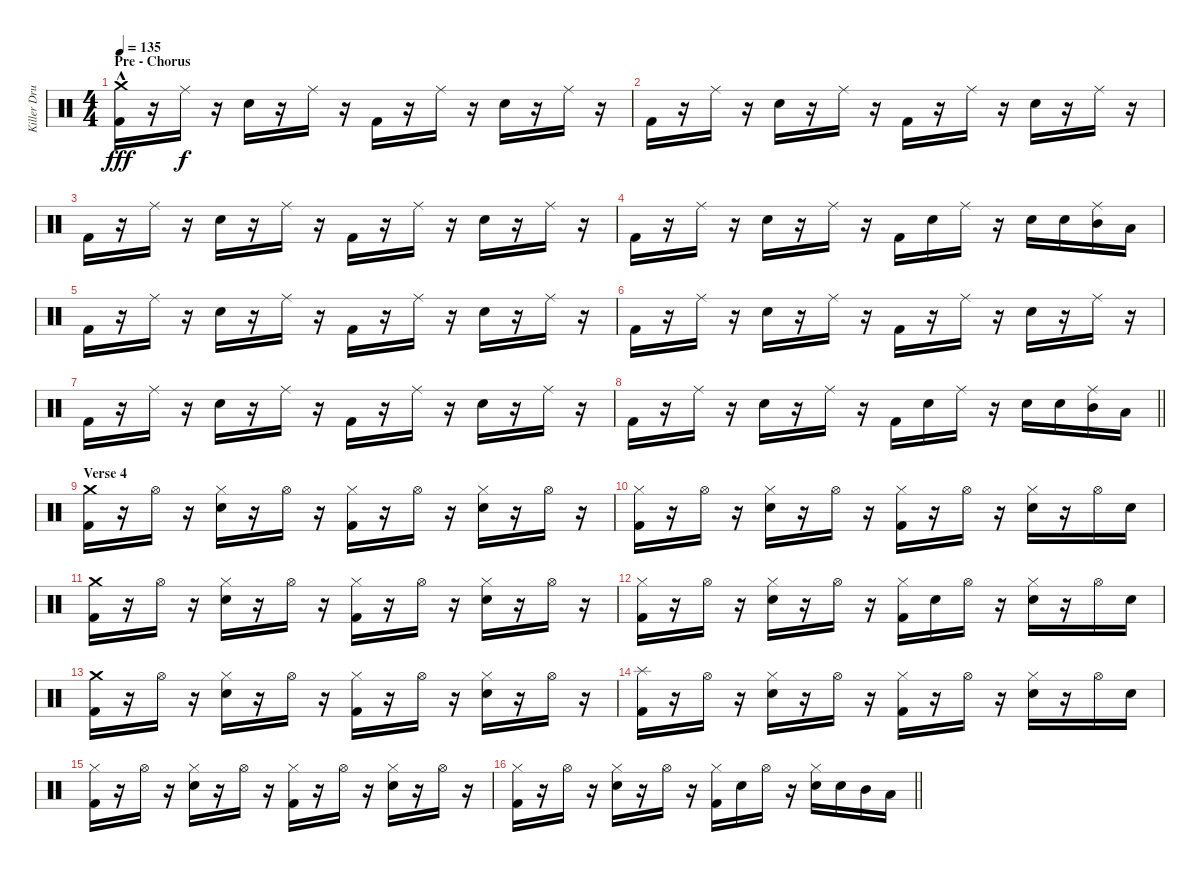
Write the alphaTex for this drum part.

\track ("Killer Drummer" "Killer Dru") {instrument percussion}
\staff {score}
\articulation defaults
\ts (4 4)
\section ("" "Pre - Chorus")
\tempo 135
\clef neutral
\ks c
("Crash medium (hit)" "Kick (hit) 2"{hac}).16{dy fff} r.16 "Ride (middle)".16{dy f} r.16 "Electric Snare (hit)".16 r.16 "Ride (middle)".16 r.16 "Kick (hit) 2".16 r.16 "Ride (middle)".16 r.16 "Electric Snare (hit)".16 r.16 "Ride (middle)".16 r.16 |
"Kick (hit) 2".16 r.16 "Ride (middle)".16 r.16 "Electric Snare (hit)".16 r.16 "Ride (middle)".16 r.16 "Kick (hit) 2".16 r.16 "Ride (middle)".16 r.16 "Electric Snare (hit)".16 r.16 "Ride (middle)".16 r.16 |
"Kick (hit) 2".16 r.16 "Ride (middle)".16 r.16 "Electric Snare (hit)".16 r.16 "Ride (middle)".16 r.16 "Kick (hit) 2".16 r.16 "Ride (middle)".16 r.16 "Electric Snare (hit)".16 r.16 "Ride (middle)".16 r.16 |
"Kick (hit) 2".16 r.16 "Ride (middle)".16 r.16 "Electric Snare (hit)".16 r.16 "Ride (middle)".16 r.16 "Kick (hit) 2".16 "Electric Snare (hit)".16 "Ride (middle)".16 r.16 "Electric Snare (hit)".16 "Electric Snare (hit)".16 ("Ride (middle)" "Mid Tom (hit)").16 "Low Tom (hit)".16 |
"Kick (hit) 2".16 r.16 "Ride (middle)".16 r.16 "Electric Snare (hit)".16 r.16 "Ride (middle)".16 r.16 "Kick (hit) 2".16 r.16 "Ride (middle)".16 r.16 "Electric Snare (hit)".16 r.16 "Ride (middle)".16 r.16 |
"Kick (hit) 2".16 r.16 "Ride (middle)".16 r.16 "Electric Snare (hit)".16 r.16 "Ride (middle)".16 r.16 "Kick (hit) 2".16 r.16 "Ride (middle)".16 r.16 "Electric Snare (hit)".16 r.16 "Ride (middle)".16 r.16 |
"Kick (hit) 2".16 r.16 "Ride (middle)".16 r.16 "Electric Snare (hit)".16 r.16 "Ride (middle)".16 r.16 "Kick (hit) 2".16 r.16 "Ride (middle)".16 r.16 "Electric Snare (hit)".16 r.16 "Ride (middle)".16 r.16 |
\barLineRight lightlight "Kick (hit) 2".16
r.16 "Ride (middle)".16 r.16 "Electric Snare (hit)".16 r.16 "Ride (middle)".16 r.16 "Kick (hit) 2".16 "Electric Snare (hit)".16 "Ride (middle)".16 r.16 "Electric Snare (hit)".16 "Electric Snare (hit)".16 ("Ride (middle)" "Mid Tom (hit)").16 "Low Tom (hit)".16 |
\section ("" "Verse 4")
("Crash medium (hit)" "Kick (hit) 2").16 r.16 "Hi-Hat (open)".16 r.16 ("Hi-Hat (closed)" "Electric Snare (hit)").16 r.16 "Hi-Hat (open)".16 r.16 ("Hi-Hat (closed)" "Kick (hit) 2").16 r.16 "Hi-Hat (open)".16 r.16 ("Hi-Hat (closed)" "Electric Snare (hit)").16 r.16 "Hi-Hat (open)".16 r.16 |
("Hi-Hat (closed)" "Kick (hit) 2").16 r.16 "Hi-Hat (open)".16 r.16 ("Hi-Hat (closed)" "Electric Snare (hit)").16 r.16 "Hi-Hat (open)".16 r.16 ("Hi-Hat (closed)" "Kick (hit) 2").16 r.16 "Hi-Hat (open)".16 r.16 ("Hi-Hat (closed)" "Electric Snare (hit)").16 r.16 "Hi-Hat (open)".16 "Electric Snare (hit)".16 |
("Crash medium (hit)" "Kick (hit) 2").16 r.16 "Hi-Hat (open)".16 r.16 ("Hi-Hat (closed)" "Electric Snare (hit)").16 r.16 "Hi-Hat (open)".16 r.16 ("Hi-Hat (closed)" "Kick (hit) 2").16 r.16 "Hi-Hat (open)".16 r.16 ("Hi-Hat (closed)" "Electric Snare (hit)").16 r.16 "Hi-Hat (open)".16 r.16 |
("Hi-Hat (closed)" "Kick (hit) 2").16 r.16 "Hi-Hat (open)".16 r.16 ("Hi-Hat (closed)" "Electric Snare (hit)").16 r.16 "Hi-Hat (open)".16 r.16 ("Hi-Hat (closed)" "Kick (hit) 2").16 "Electric Snare (hit)".16 "Hi-Hat (open)".16 r.16 ("Hi-Hat (closed)" "Electric Snare (hit)").16 r.16 "Hi-Hat (open)".16 "Electric Snare (hit)".16 |
("Crash medium (hit)" "Kick (hit) 2").16 r.16 "Hi-Hat (open)".16 r.16 ("Hi-Hat (closed)" "Electric Snare (hit)").16 r.16 "Hi-Hat (open)".16 r.16 ("Hi-Hat (closed)" "Kick (hit) 2").16 r.16 "Hi-Hat (open)".16 r.16 ("Hi-Hat (closed)" "Electric Snare (hit)").16 r.16 "Hi-Hat (open)".16 r.16 |
("Splash (hit)" "Kick (hit) 2").16 r.16 "Hi-Hat (open)".16 r.16 ("Hi-Hat (closed)" "Electric Snare (hit)").16 r.16 "Hi-Hat (open)".16 r.16 ("Hi-Hat (closed)" "Kick (hit) 2").16 r.16 "Hi-Hat (open)".16 r.16 ("Hi-Hat (closed)" "Electric Snare (hit)").16 r.16 "Hi-Hat (open)".16 "Electric Snare (hit)".16 |
("Hi-Hat (closed)" "Kick (hit) 2").16 r.16 "Hi-Hat (open)".16 r.16 ("Hi-Hat (closed)" "Electric Snare (hit)").16 r.16 "Hi-Hat (open)".16 r.16 ("Hi-Hat (closed)" "Kick (hit) 2").16 r.16 "Hi-Hat (open)".16 r.16 ("Hi-Hat (closed)" "Electric Snare (hit)").16 r.16 "Hi-Hat (open)".16 r.16 |
\barLineRight lightlight
("Hi-Hat (closed)" "Kick (hit) 2").16 r.16 "Hi-Hat (open)".16 r.16 ("Hi-Hat (closed)" "Electric Snare (hit)").16 r.16 "Hi-Hat (open)".16 r.16 ("Hi-Hat (closed)" "Kick (hit) 2").16 "Electric Snare (hit)".16 "Hi-Hat (open)".16 r.16 ("Hi-Hat (closed)" "Electric Snare (hit)").16 "Electric Snare (hit)".16 "Mid Tom (hit)".16 "Low Tom (hit)".16
